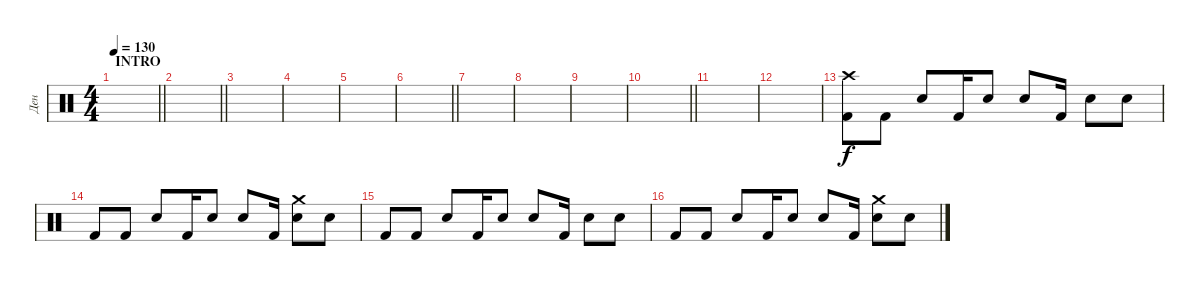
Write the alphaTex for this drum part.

\track ("Ден" "Ден") {instrument percussion}
\staff {score}
\articulation defaults
\ts (4 4)
\section ("" "INTRO")
\tempo 130
\clef neutral
\barLineRight lightlight
\ks c
|
\barLineRight lightlight
|
\section ("" "")
|
|
|
\barLineRight lightlight
|
|
|
|
\barLineRight lightlight
|
|
|
("Crash high (hit)" "Kick (hit) 2").8 "Kick (hit) 2".8 "Snare (hit) 2".8 "Kick (hit) 2".16 "Snare (hit) 2".8 "Snare (hit) 2".8 "Kick (hit) 2".16 "Snare (hit) 2".8 "Snare (hit)".8 |
"Kick (hit) 2".8 "Kick (hit) 2".8 "Snare (hit) 2".8 "Kick (hit) 2".16 "Snare (hit) 2".8 "Snare (hit) 2".8 "Kick (hit) 2".16 ("Crash medium (hit)" "Snare (hit) 2").8 "Snare (hit)".8 |
"Kick (hit) 2".8 "Kick (hit) 2".8 "Snare (hit) 2".8 "Kick (hit) 2".16 "Snare (hit) 2".8 "Snare (hit) 2".8 "Kick (hit) 2".16 "Snare (hit) 2".8 "Snare (hit)".8 |
"Kick (hit) 2".8 "Kick (hit) 2".8 "Snare (hit) 2".8 "Kick (hit) 2".16 "Snare (hit) 2".8 "Snare (hit) 2".8 "Kick (hit) 2".16 ("Crash medium (hit)" "Snare (hit) 2").8 "Snare (hit)".8
